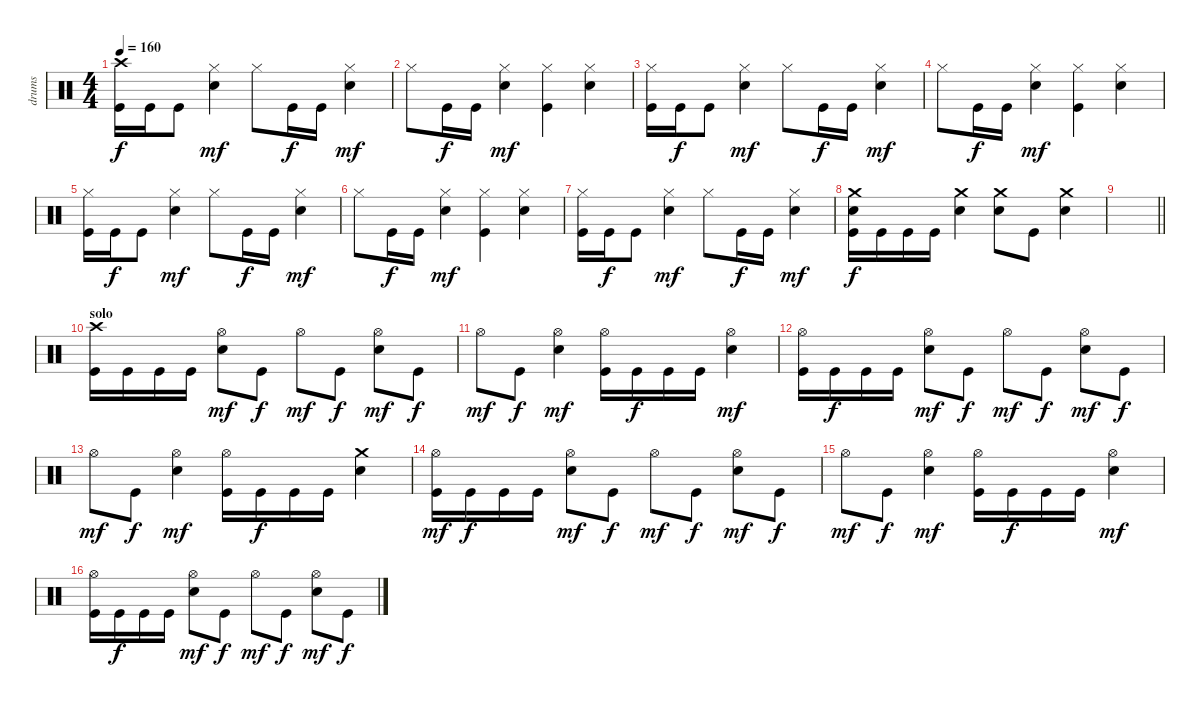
\track ("drums" "drums") {instrument percussion}
\staff {score}
\articulation defaults
\ts (4 4)
\tempo 160
\clef neutral
\ks c
("Crash high (hit)" "Kick (hit)").16{dy f} "Kick (hit)".16 "Kick (hit)".8 ("Hi-Hat (closed)" "Electric Snare (hit)").4{dy mf} "Hi-Hat (closed)".8 "Kick (hit)".16{dy f} "Kick (hit)".16 ("Hi-Hat (closed)" "Electric Snare (hit)").4{dy mf} |
"Hi-Hat (closed)".8 "Kick (hit)".16{dy f} "Kick (hit)".16 ("Hi-Hat (closed)" "Electric Snare (hit)").4{dy mf} ("Hi-Hat (closed)" "Kick (hit)").4 ("Hi-Hat (closed)" "Electric Snare (hit)").4 |
("Hi-Hat (closed)" "Kick (hit)").16 "Kick (hit)".16{dy f} "Kick (hit)".8 ("Hi-Hat (closed)" "Electric Snare (hit)").4{dy mf} "Hi-Hat (closed)".8 "Kick (hit)".16{dy f} "Kick (hit)".16 ("Hi-Hat (closed)" "Electric Snare (hit)").4{dy mf} |
"Hi-Hat (closed)".8 "Kick (hit)".16{dy f} "Kick (hit)".16 ("Hi-Hat (closed)" "Electric Snare (hit)").4{dy mf} ("Hi-Hat (closed)" "Kick (hit)").4 ("Hi-Hat (closed)" "Electric Snare (hit)").4 |
("Hi-Hat (closed)" "Kick (hit)").16 "Kick (hit)".16{dy f} "Kick (hit)".8 ("Hi-Hat (closed)" "Electric Snare (hit)").4{dy mf} "Hi-Hat (closed)".8 "Kick (hit)".16{dy f} "Kick (hit)".16 ("Hi-Hat (closed)" "Electric Snare (hit)").4{dy mf} |
"Hi-Hat (closed)".8 "Kick (hit)".16{dy f} "Kick (hit)".16 ("Hi-Hat (closed)" "Electric Snare (hit)").4{dy mf} ("Hi-Hat (closed)" "Kick (hit)").4 ("Hi-Hat (closed)" "Electric Snare (hit)").4 |
("Hi-Hat (closed)" "Kick (hit)").16 "Kick (hit)".16{dy f} "Kick (hit)".8 ("Hi-Hat (closed)" "Electric Snare (hit)").4{dy mf} "Hi-Hat (closed)".8 "Kick (hit)".16{dy f} "Kick (hit)".16 ("Hi-Hat (closed)" "Electric Snare (hit)").4{dy mf} |
("Crash medium (hit)" "Electric Snare (hit)" "Kick (hit)").16{dy f} "Kick (hit)".16 "Kick (hit)".16 "Kick (hit)".16 ("Crash medium (hit)" "Electric Snare (hit)").4 ("Crash medium (hit)" "Electric Snare (hit)").8 "Kick (hit)".8 ("Crash medium (hit)" "Electric Snare (hit)").4 |
\barLineRight lightlight
|
\section ("" "solo")
("Crash high (hit)" "Kick (hit)").16 "Kick (hit)".16 "Kick (hit)".16 "Kick (hit)".16 ("Hi-Hat (open)" "Electric Snare (hit)").8{dy mf} "Kick (hit)".8{dy f} "Hi-Hat (open)".8{dy mf} "Kick (hit)".8{dy f} ("Hi-Hat (open)" "Electric Snare (hit)").8{dy mf} "Kick (hit)".8{dy f} |
"Hi-Hat (open)".8{dy mf} "Kick (hit)".8{dy f} ("Hi-Hat (open)" "Electric Snare (hit)").4{dy mf} ("Hi-Hat (open)" "Kick (hit)").16 "Kick (hit)".16{dy f} "Kick (hit)".16 "Kick (hit)".16 ("Hi-Hat (open)" "Electric Snare (hit)").4{dy mf} |
("Hi-Hat (open)" "Kick (hit)").16 "Kick (hit)".16{dy f} "Kick (hit)".16 "Kick (hit)".16 ("Hi-Hat (open)" "Electric Snare (hit)").8{dy mf} "Kick (hit)".8{dy f} "Hi-Hat (open)".8{dy mf} "Kick (hit)".8{dy f} ("Hi-Hat (open)" "Electric Snare (hit)").8{dy mf} "Kick (hit)".8{dy f} |
"Hi-Hat (open)".8{dy mf} "Kick (hit)".8{dy f} ("Hi-Hat (open)" "Electric Snare (hit)").4{dy mf} ("Hi-Hat (open)" "Kick (hit)").16 "Kick (hit)".16{dy f} "Kick (hit)".16 "Kick (hit)".16 ("Crash medium (hit)" "Electric Snare (hit)").4 |
("Hi-Hat (open)" "Kick (hit)").16{dy mf} "Kick (hit)".16{dy f} "Kick (hit)".16 "Kick (hit)".16 ("Hi-Hat (open)" "Electric Snare (hit)").8{dy mf} "Kick (hit)".8{dy f} "Hi-Hat (open)".8{dy mf} "Kick (hit)".8{dy f} ("Hi-Hat (open)" "Electric Snare (hit)").8{dy mf} "Kick (hit)".8{dy f} |
"Hi-Hat (open)".8{dy mf} "Kick (hit)".8{dy f} ("Hi-Hat (open)" "Electric Snare (hit)").4{dy mf} ("Hi-Hat (open)" "Kick (hit)").16 "Kick (hit)".16{dy f} "Kick (hit)".16 "Kick (hit)".16 ("Hi-Hat (open)" "Electric Snare (hit)").4{dy mf} |
("Hi-Hat (open)" "Kick (hit)").16 "Kick (hit)".16{dy f} "Kick (hit)".16 "Kick (hit)".16 ("Hi-Hat (open)" "Electric Snare (hit)").8{dy mf} "Kick (hit)".8{dy f} "Hi-Hat (open)".8{dy mf} "Kick (hit)".8{dy f} ("Hi-Hat (open)" "Electric Snare (hit)").8{dy mf} "Kick (hit)".8{dy f}
